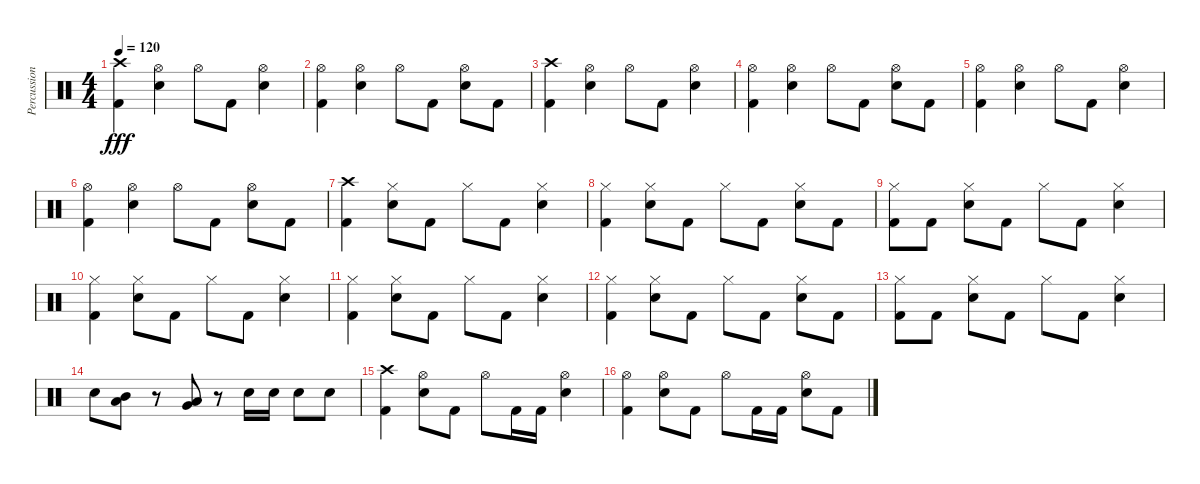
\track ("Percussion" "Percussion") {instrument percussion}
\staff {score}
\articulation defaults
\ts (4 4)
\tempo 120
\clef neutral
\ks c
("Crash high (hit)" "Kick (hit) 2").4{dy fff} ("Hi-Hat (open)" "Snare (hit) 2").4 "Hi-Hat (open)".8 "Kick (hit) 2".8 ("Hi-Hat (open)" "Snare (hit) 2").4 |
("Hi-Hat (open)" "Kick (hit) 2").4 ("Hi-Hat (open)" "Snare (hit) 2").4 "Hi-Hat (open)".8 "Kick (hit) 2".8 ("Hi-Hat (open)" "Snare (hit) 2").8 "Kick (hit) 2".8 |
("Crash high (hit)" "Kick (hit) 2").4 ("Hi-Hat (open)" "Snare (hit) 2").4 "Hi-Hat (open)".8 "Kick (hit) 2".8 ("Hi-Hat (open)" "Snare (hit) 2").4 |
("Hi-Hat (open)" "Kick (hit) 2").4 ("Hi-Hat (open)" "Snare (hit) 2").4 "Hi-Hat (open)".8 "Kick (hit) 2".8 ("Hi-Hat (open)" "Snare (hit) 2").8 "Kick (hit) 2".8 |
("Hi-Hat (open)" "Kick (hit) 2").4 ("Hi-Hat (open)" "Snare (hit) 2").4 "Hi-Hat (open)".8 "Kick (hit) 2".8 ("Hi-Hat (open)" "Snare (hit) 2").4 |
("Hi-Hat (open)" "Kick (hit) 2").4 ("Hi-Hat (open)" "Snare (hit) 2").4 "Hi-Hat (open)".8 "Kick (hit) 2".8 ("Hi-Hat (open)" "Snare (hit) 2").8 "Kick (hit) 2".8 |
("Crash high (hit)" "Kick (hit) 2").4 ("Hi-Hat (closed)" "Snare (hit) 2").8 "Kick (hit) 2".8 "Hi-Hat (closed)".8 "Kick (hit) 2".8 ("Hi-Hat (closed)" "Snare (hit) 2").4 |
("Hi-Hat (closed)" "Kick (hit) 2").4 ("Hi-Hat (closed)" "Snare (hit) 2").8 "Kick (hit) 2".8 "Hi-Hat (closed)".8 "Kick (hit) 2".8 ("Hi-Hat (closed)" "Snare (hit) 2").8 "Kick (hit) 2".8 |
("Hi-Hat (closed)" "Kick (hit) 2").8 "Kick (hit) 2".8 ("Hi-Hat (closed)" "Snare (hit) 2").8 "Kick (hit) 2".8 "Hi-Hat (closed)".8 "Kick (hit) 2".8 ("Hi-Hat (closed)" "Snare (hit) 2").4 |
("Hi-Hat (closed)" "Kick (hit) 2").4 ("Hi-Hat (closed)" "Snare (hit) 2").8 "Kick (hit) 2".8 "Hi-Hat (closed)".8 "Kick (hit) 2".8 ("Hi-Hat (closed)" "Snare (hit) 2").4 |
("Hi-Hat (closed)" "Kick (hit) 2").4 ("Hi-Hat (closed)" "Snare (hit) 2").8 "Kick (hit) 2".8 "Hi-Hat (closed)".8 "Kick (hit) 2".8 ("Hi-Hat (closed)" "Snare (hit) 2").4 |
("Hi-Hat (closed)" "Kick (hit) 2").4 ("Hi-Hat (closed)" "Snare (hit) 2").8 "Kick (hit) 2".8 "Hi-Hat (closed)".8 "Kick (hit) 2".8 ("Hi-Hat (closed)" "Snare (hit) 2").8 "Kick (hit) 2".8 |
("Hi-Hat (closed)" "Kick (hit) 2").8 "Kick (hit) 2".8 ("Hi-Hat (closed)" "Snare (hit) 2").8 "Kick (hit) 2".8 "Hi-Hat (closed)".8 "Kick (hit) 2".8 ("Hi-Hat (closed)" "Snare (hit) 2").4 |
"Snare (hit) 2".8 ("Mid Tom (hit)" "Low Tom (hit)").8 r.8 ("Low Tom (hit)" "Very Low Tom (hit)").8 r.8 "Snare (hit) 2".16 "Snare (hit) 2".16 "Snare (hit) 2".8 "Snare (hit) 2".8 |
("Crash high (hit)" "Kick (hit) 2").4 ("Hi-Hat (open)" "Snare (hit) 2").8 "Kick (hit) 2".8 "Hi-Hat (open)".8 "Kick (hit) 2".16 "Kick (hit) 2".16 ("Hi-Hat (open)" "Snare (hit) 2").4 |
("Hi-Hat (open)" "Kick (hit) 2").4 ("Hi-Hat (open)" "Snare (hit) 2").8 "Kick (hit) 2".8 "Hi-Hat (open)".8 "Kick (hit) 2".16 "Kick (hit) 2".16 ("Hi-Hat (open)" "Snare (hit) 2").8 "Kick (hit) 2".8
